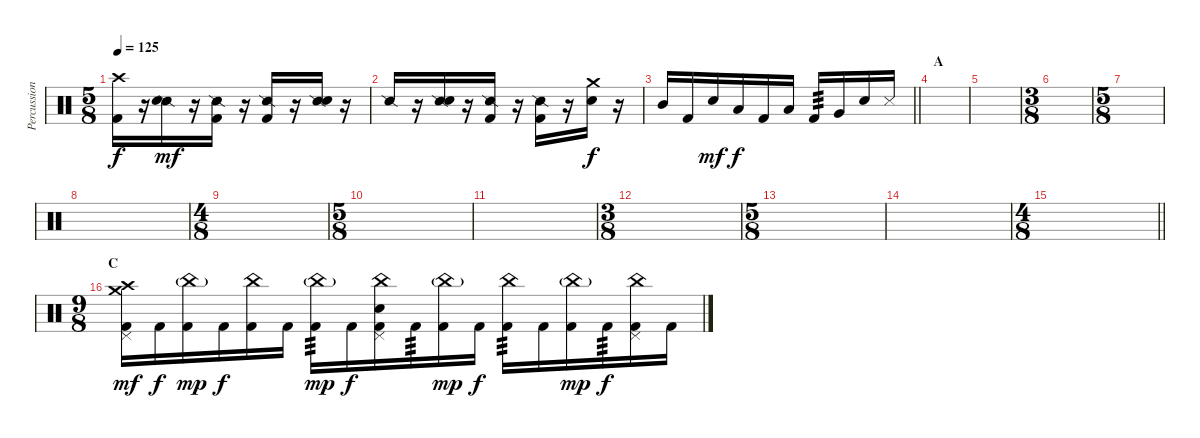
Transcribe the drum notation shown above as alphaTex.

\track ("Percussion" "Percussion") {instrument percussion}
\staff {score}
\articulation defaults
\ts (5 8)
\tempo 125
\clef neutral
\ks c
("Crash high (hit)" "Kick (hit) 2").16{dy f} r.16 ("Snare (side stick) 2" "Snare (hit) 2").16{dy mf} r.16 ("Snare (side stick) 2" "Kick (hit) 2").16 r.16 ("Snare (side stick) 2" "Kick (hit) 2").16 r.16 ("Snare (side stick) 2" "Snare (hit) 2").16 r.16 |
"Snare (side stick) 2".16 r.16 ("Snare (side stick) 2" "Snare (hit) 2").16 r.16 ("Snare (side stick) 2" "Kick (hit) 2").16 r.16 ("Snare (side stick) 2" "Kick (hit) 2").16 r.16 ("Crash medium (hit)" "Snare (hit) 2").16{dy f} r.16 |
\barLineRight lightlight "Mid Tom (hit)".16 "Kick (hit) 2".16 "Snare (hit) 2".16{dy mf} "Low Tom (hit)".16{dy f} "Kick (hit) 2".16 "Low Tom (hit)".16 "Kick (hit) 2".16{tp 3} "Very Low Tom (hit)".16 "Snare (hit) 2".16 "Metronome (hit)".16
|
\section ("" "A")
|
|
\ts (3 8)
|
\ts (5 8)
|
|
\ts (4 8)
|
\ts (5 8)
|
|
\ts (3 8)
|
\ts (5 8)
|
|
\ts (4 8)
\barLineRight lightlight
|
\ts (9 8)
\section ("" "C")
("Crash medium (hit)" "Crash high (hit)" "Pedal Hi-Hat (hit)" "Kick (hit) 2").16{dy mf} "Kick (hit) 2".16{dy f} ("China (hit)"{g} "Kick (hit) 2").16{dy mp} "Kick (hit) 2".16{dy f} ("China (hit)" "Kick (hit) 2").16 "Kick (hit) 2".16 ("China (hit)"{g} "Kick (hit) 2").16{tp 3 dy mp} "Kick (hit) 2".16{dy f} ("China (hit)" "Pedal Hi-Hat (hit)" "Snare (hit) 2" "Kick (hit) 2").16 "Kick (hit) 2".16{tp 3} ("China (hit)"{g} "Kick (hit) 2").16{dy mp} "Kick (hit) 2".16{dy f} ("China (hit)" "Kick (hit) 2").16{tp 3} "Kick (hit) 2".16 ("China (hit)"{g} "Kick (hit) 2").16{dy mp} "Kick (hit) 2".16{tp 3 dy f} ("China (hit)" "Pedal Hi-Hat (hit)" "Kick (hit) 2").16 "Kick (hit) 2".16
